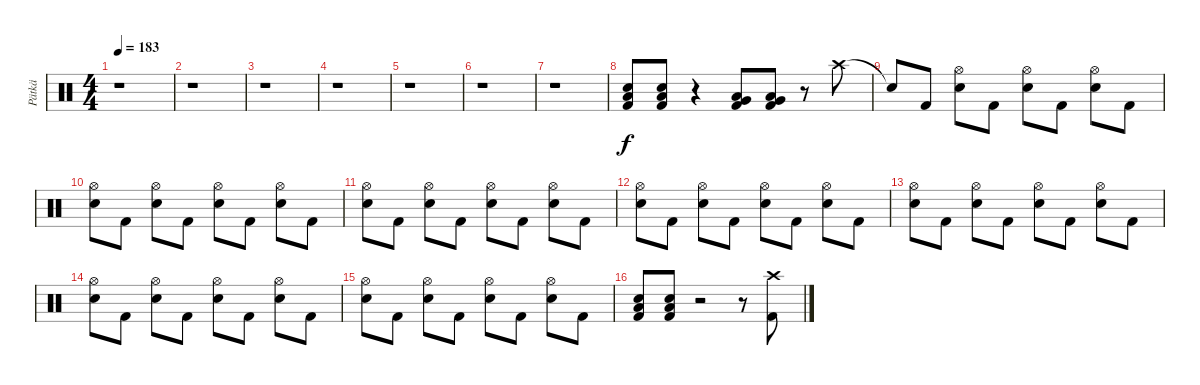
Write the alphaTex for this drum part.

\track ("Pätkä" "Pätkä") {instrument percussion}
\staff {score}
\articulation defaults
\ts (4 4)
\tempo 183
\clef neutral
\ks c
r.1{dy f} |
r.1 |
r.1 |
r.1 |
r.1 |
r.1 |
r.1 |
("Low Floor Tom (hit)" "Electric Snare (hit)" "Kick (hit) 2").8 ("Low Floor Tom (hit)" "Electric Snare (hit)" "Kick (hit) 2").8 r.4 ("Low Tom (hit)" "Very Low Tom (hit)" "Kick (hit) 2").8 ("Low Tom (hit)" "Very Low Tom (hit)" "Kick (hit) 2").8 r.8 "Crash high (hit)".8 |
"Snare (hit)"{t}.8 "Kick (hit) 2".8 ("Hi-Hat (open)" "Electric Snare (hit)").8 "Kick (hit) 2".8 ("Hi-Hat (open)" "Electric Snare (hit)").8 "Kick (hit) 2".8 ("Hi-Hat (open)" "Electric Snare (hit)").8 "Kick (hit) 2".8 |
("Hi-Hat (open)" "Electric Snare (hit)").8 "Kick (hit) 2".8 ("Hi-Hat (open)" "Electric Snare (hit)").8 "Kick (hit) 2".8 ("Hi-Hat (open)" "Electric Snare (hit)").8 "Kick (hit) 2".8 ("Hi-Hat (open)" "Electric Snare (hit)").8 "Kick (hit) 2".8 |
("Hi-Hat (open)" "Electric Snare (hit)").8 "Kick (hit) 2".8 ("Hi-Hat (open)" "Electric Snare (hit)").8 "Kick (hit) 2".8 ("Hi-Hat (open)" "Electric Snare (hit)").8 "Kick (hit) 2".8 ("Hi-Hat (open)" "Electric Snare (hit)").8 "Kick (hit) 2".8 |
("Hi-Hat (open)" "Electric Snare (hit)").8 "Kick (hit) 2".8 ("Hi-Hat (open)" "Electric Snare (hit)").8 "Kick (hit) 2".8 ("Hi-Hat (open)" "Electric Snare (hit)").8 "Kick (hit) 2".8 ("Hi-Hat (open)" "Electric Snare (hit)").8 "Kick (hit) 2".8 |
("Hi-Hat (open)" "Electric Snare (hit)").8 "Kick (hit) 2".8 ("Hi-Hat (open)" "Electric Snare (hit)").8 "Kick (hit) 2".8 ("Hi-Hat (open)" "Electric Snare (hit)").8 "Kick (hit) 2".8 ("Hi-Hat (open)" "Electric Snare (hit)").8 "Kick (hit) 2".8 |
("Hi-Hat (open)" "Electric Snare (hit)").8 "Kick (hit) 2".8 ("Hi-Hat (open)" "Electric Snare (hit)").8 "Kick (hit) 2".8 ("Hi-Hat (open)" "Electric Snare (hit)").8 "Kick (hit) 2".8 ("Hi-Hat (open)" "Electric Snare (hit)").8 "Kick (hit) 2".8 |
("Hi-Hat (open)" "Electric Snare (hit)").8 "Kick (hit) 2".8 ("Hi-Hat (open)" "Electric Snare (hit)").8 "Kick (hit) 2".8 ("Hi-Hat (open)" "Electric Snare (hit)").8 "Kick (hit) 2".8 ("Hi-Hat (open)" "Electric Snare (hit)").8 "Kick (hit) 2".8 |
("Low Floor Tom (hit)" "Electric Snare (hit)" "Kick (hit) 2").8 ("Low Floor Tom (hit)" "Electric Snare (hit)" "Kick (hit) 2").8 r.2 r.8 ("Crash high (hit)" "Kick (hit) 2").8
